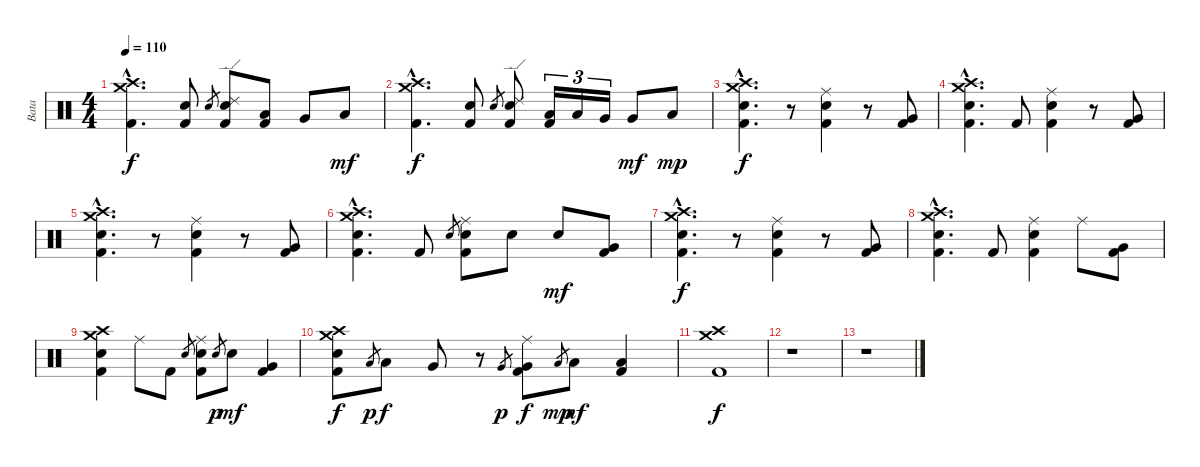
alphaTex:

\track ("Bata" "Bata") {instrument percussion}
\staff {score}
\articulation defaults
\ts (4 4)
\tempo 110
\clef neutral
\ks c
("Crash high (hit)"{hac} "Crash medium (hit)"{hac} "Kick (hit) 2"{hac}).4{d dy f} ("Electric Snare (hit)" "Kick (hit) 2").8 "Electric Snare (hit)".8{gr} ("Ride (edge) 2" "Electric Snare (hit)" "Kick (hit) 2").8 ("Low Tom (hit)" "Kick (hit) 2").8 "Very Low Tom (hit)".8 "Low Floor Tom (hit)".8{dy mf} |
("Crash high (hit)"{hac} "Crash medium (hit)"{hac} "Kick (hit) 2"{hac}).4{d dy f} ("Electric Snare (hit)" "Kick (hit) 2").8 "Electric Snare (hit)".8{gr} ("Ride (edge) 2" "Electric Snare (hit)" "Kick (hit) 2").8 ("Low Tom (hit)" "Kick (hit) 2").16{tu (3 2)} "Low Tom (hit)".16{tu (3 2)} "Very Low Tom (hit)".16{tu (3 2)} "Very Low Tom (hit)".8{dy mf} "Low Floor Tom (hit)".8{dy mp} |
("Crash high (hit)"{hac} "Crash medium (hit)"{hac} "Electric Snare (hit)"{hac} "Kick (hit) 2"{hac}).4{d dy f} r.8 ("Ride (middle)" "Electric Snare (hit)" "Kick (hit) 2").4 r.8 ("Very Low Tom (hit)" "Kick (hit) 2").8 |
("Crash high (hit)"{hac} "Crash medium (hit)"{hac} "Electric Snare (hit)"{hac} "Kick (hit) 2"{hac}).4{d} "Kick (hit) 2".8 ("Ride (middle)" "Electric Snare (hit)" "Kick (hit) 2").4 r.8 ("Very Low Tom (hit)" "Kick (hit) 2").8 |
("Crash high (hit)"{hac} "Crash medium (hit)"{hac} "Electric Snare (hit)"{hac} "Kick (hit) 2"{hac}).4{d} r.8 ("Ride (middle)" "Electric Snare (hit)" "Kick (hit) 2").4 r.8 ("Very Low Tom (hit)" "Kick (hit) 2").8 |
("Crash high (hit)"{hac} "Crash medium (hit)"{hac} "Electric Snare (hit)"{hac} "Kick (hit) 2"{hac}).4{d} "Kick (hit) 2".8 "Electric Snare (hit)".8{gr} ("Ride (middle)" "Electric Snare (hit)" "Kick (hit) 2").8 "Electric Snare (hit)".8 "Electric Snare (hit)".8{dy mf} ("Very Low Tom (hit)" "Kick (hit) 2").8 |
("Crash high (hit)"{hac} "Crash medium (hit)"{hac} "Electric Snare (hit)"{hac} "Kick (hit) 2"{hac}).4{d dy f} r.8 ("Ride (middle)" "Electric Snare (hit)" "Kick (hit) 2").4 r.8 ("Very Low Tom (hit)" "Kick (hit) 2").8 |
("Crash high (hit)"{hac} "Crash medium (hit)"{hac} "Electric Snare (hit)"{hac} "Kick (hit) 2"{hac}).4{d} "Kick (hit) 2".8 ("Ride (middle)" "Electric Snare (hit)" "Kick (hit) 2").4 "Ride (middle)".8 ("Very Low Tom (hit)" "Kick (hit) 2").8 |
("Crash high (hit)" "Crash medium (hit)" "Electric Snare (hit)" "Kick (hit) 2").4 "Ride (middle)".8 "Kick (hit) 2".8 "Electric Snare (hit)".8{gr} ("Ride (middle)" "Electric Snare (hit)" "Kick (hit) 2").8 "Electric Snare (hit)".8{gr dy p} "Electric Snare (hit)".8{dy mf} ("Very Low Tom (hit)" "Kick (hit) 2").4 |
("Crash high (hit)" "Crash medium (hit)" "Electric Snare (hit)" "Kick (hit) 2").8{dy f} "Low Tom (hit)".8{gr dy p} "Low Tom (hit)".8{dy f} "Very Low Tom (hit)".8 r.8 "Very Low Tom (hit)".8{gr dy p} ("Ride (middle)" "Very Low Tom (hit)" "Kick (hit) 2").8{dy f} "Low Floor Tom (hit)".8{gr dy mp} "Low Floor Tom (hit)".8{dy mf} ("Low Floor Tom (hit)" "Kick (hit) 2").4 |
("Crash high (hit)" "Crash medium (hit)" "Kick (hit) 2").1{dy f} |
r.1 |
r.1
